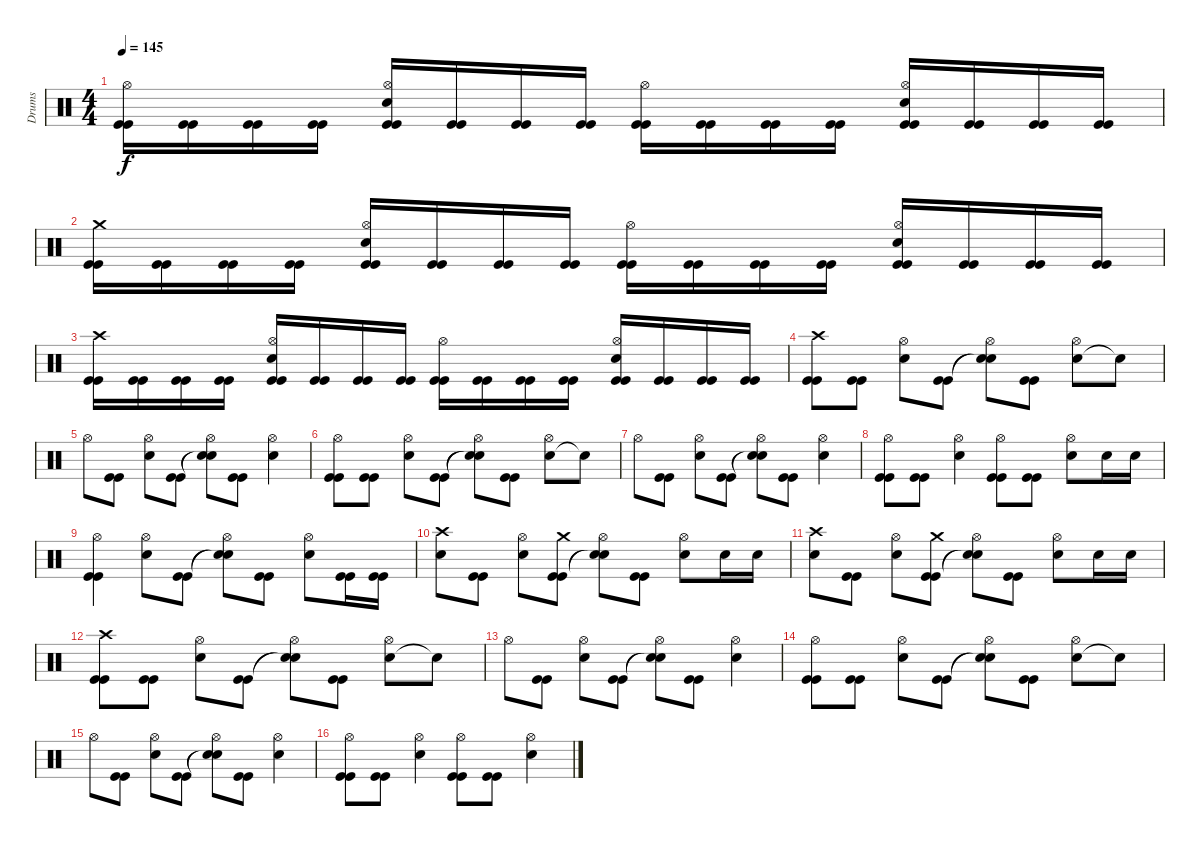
\track ("Drums" "Drums") {instrument percussion}
\staff {score}
\articulation defaults
\ts (4 4)
\tempo 145
\clef neutral
\ks c
("Kick (hit)" "Kick (hit)" "Hi-Hat (open)").16{dy f} ("Kick (hit)" "Kick (hit)").16 ("Kick (hit)" "Kick (hit)").16 ("Kick (hit)" "Kick (hit)").16 ("Kick (hit)" "Kick (hit)" "Snare (hit) 2" "Hi-Hat (open)").16 ("Kick (hit)" "Kick (hit)").16 ("Kick (hit)" "Kick (hit)").16 ("Kick (hit)" "Kick (hit)").16 ("Kick (hit)" "Kick (hit)" "Hi-Hat (open)").16 ("Kick (hit)" "Kick (hit)").16 ("Kick (hit)" "Kick (hit)").16 ("Kick (hit)" "Kick (hit)").16 ("Kick (hit)" "Kick (hit)" "Snare (hit) 2" "Hi-Hat (open)").16 ("Kick (hit)" "Kick (hit)").16 ("Kick (hit)" "Kick (hit)").16 ("Kick (hit)" "Kick (hit)").16 |
("Kick (hit)" "Kick (hit)" "Crash medium (hit)").16 ("Kick (hit)" "Kick (hit)").16 ("Kick (hit)" "Kick (hit)").16 ("Kick (hit)" "Kick (hit)").16 ("Kick (hit)" "Kick (hit)" "Snare (hit) 2" "Hi-Hat (open)").16 ("Kick (hit)" "Kick (hit)").16 ("Kick (hit)" "Kick (hit)").16 ("Kick (hit)" "Kick (hit)").16 ("Kick (hit)" "Kick (hit)" "Hi-Hat (open)").16 ("Kick (hit)" "Kick (hit)").16 ("Kick (hit)" "Kick (hit)").16 ("Kick (hit)" "Kick (hit)").16 ("Kick (hit)" "Kick (hit)" "Snare (hit) 2" "Hi-Hat (open)").16 ("Kick (hit)" "Kick (hit)").16 ("Kick (hit)" "Kick (hit)").16 ("Kick (hit)" "Kick (hit)").16 |
("Kick (hit)" "Kick (hit)" "Crash high (hit)").16 ("Kick (hit)" "Kick (hit)").16 ("Kick (hit)" "Kick (hit)").16 ("Kick (hit)" "Kick (hit)").16 ("Kick (hit)" "Kick (hit)" "Snare (hit) 2" "Hi-Hat (open)").16 ("Kick (hit)" "Kick (hit)").16 ("Kick (hit)" "Kick (hit)").16 ("Kick (hit)" "Kick (hit)").16 ("Kick (hit)" "Kick (hit)" "Hi-Hat (open)").16 ("Kick (hit)" "Kick (hit)").16 ("Kick (hit)" "Kick (hit)").16 ("Kick (hit)" "Kick (hit)").16 ("Kick (hit)" "Kick (hit)" "Snare (hit) 2" "Hi-Hat (open)").16 ("Kick (hit)" "Kick (hit)").16 ("Kick (hit)" "Kick (hit)").16 ("Kick (hit)" "Kick (hit)").16 |
("Kick (hit)" "Kick (hit)" "Crash high (hit)").8 ("Kick (hit)" "Kick (hit)").8 ("Snare (hit) 2" "Hi-Hat (open)").8 ("Kick (hit)" "Kick (hit)").8 ("Snare (hit)"{t} "Snare (hit)"{t} "Hi-Hat (open)").8 ("Kick (hit)" "Kick (hit)").8 ("Snare (hit) 2" "Hi-Hat (open)").8 "Snare (hit)"{t}.8 |
"Hi-Hat (open)".8 ("Kick (hit)" "Kick (hit)").8 ("Snare (hit) 2" "Hi-Hat (open)").8 ("Kick (hit)" "Kick (hit)").8 ("Snare (hit)"{t} "Snare (hit)"{t} "Hi-Hat (open)").8 ("Kick (hit)" "Kick (hit)").8 ("Snare (hit) 2" "Hi-Hat (open)").4 |
("Kick (hit)" "Kick (hit)" "Hi-Hat (open)").8 ("Kick (hit)" "Kick (hit)").8 ("Snare (hit) 2" "Hi-Hat (open)").8 ("Kick (hit)" "Kick (hit)").8 ("Snare (hit)"{t} "Snare (hit)"{t} "Hi-Hat (open)").8 ("Kick (hit)" "Kick (hit)").8 ("Snare (hit) 2" "Hi-Hat (open)").8 "Snare (hit)"{t}.8 |
"Hi-Hat (open)".8 ("Kick (hit)" "Kick (hit)").8 ("Snare (hit) 2" "Hi-Hat (open)").8 ("Kick (hit)" "Kick (hit)").8 ("Snare (hit)"{t} "Snare (hit)"{t} "Hi-Hat (open)").8 ("Kick (hit)" "Kick (hit)").8 ("Snare (hit) 2" "Hi-Hat (open)").4 |
("Kick (hit)" "Kick (hit)" "Hi-Hat (open)").8 ("Kick (hit)" "Kick (hit)").8 ("Snare (hit) 2" "Hi-Hat (open)").4 ("Kick (hit)" "Kick (hit)" "Hi-Hat (open)").8 ("Kick (hit)" "Kick (hit)").8 ("Snare (hit) 2" "Hi-Hat (open)").8 "Snare (hit) 2".16 "Snare (hit) 2".16 |
("Kick (hit)" "Kick (hit)" "Hi-Hat (open)").4 ("Snare (hit) 2" "Hi-Hat (open)").8 ("Kick (hit)" "Kick (hit)").8 ("Snare (hit)"{t} "Snare (hit)"{t} "Hi-Hat (open)").8 ("Kick (hit)" "Kick (hit)").8 ("Snare (hit) 2" "Hi-Hat (open)").8 ("Kick (hit)" "Kick (hit)").16 ("Kick (hit)" "Kick (hit)").16 |
("Snare (hit) 2" "Crash high (hit)").8 ("Kick (hit)" "Kick (hit)").8 ("Snare (hit) 2" "Hi-Hat (open)").8 ("Kick (hit)" "Kick (hit)" "Crash medium (hit)").8 ("Snare (hit)"{t} "Snare (hit)"{t} "Hi-Hat (open)").8 ("Kick (hit)" "Kick (hit)").8 ("Snare (hit) 2" "Hi-Hat (open)").8 "Snare (hit) 2".16 "Snare (hit) 2".16 |
("Snare (hit) 2" "Crash high (hit)").8 ("Kick (hit)" "Kick (hit)").8 ("Snare (hit) 2" "Hi-Hat (open)").8 ("Kick (hit)" "Kick (hit)" "Crash medium (hit)").8 ("Snare (hit)"{t} "Snare (hit)"{t} "Hi-Hat (open)").8 ("Kick (hit)" "Kick (hit)").8 ("Snare (hit) 2" "Hi-Hat (open)").8 "Snare (hit) 2".16 "Snare (hit) 2".16 |
("Kick (hit)" "Kick (hit)" "Crash high (hit)").8 ("Kick (hit)" "Kick (hit)").8 ("Snare (hit) 2" "Hi-Hat (open)").8 ("Kick (hit)" "Kick (hit)").8 ("Snare (hit)"{t} "Snare (hit)"{t} "Hi-Hat (open)").8 ("Kick (hit)" "Kick (hit)").8 ("Snare (hit) 2" "Hi-Hat (open)").8 "Snare (hit)"{t}.8 |
"Hi-Hat (open)".8 ("Kick (hit)" "Kick (hit)").8 ("Snare (hit) 2" "Hi-Hat (open)").8 ("Kick (hit)" "Kick (hit)").8 ("Snare (hit)"{t} "Snare (hit)"{t} "Hi-Hat (open)").8 ("Kick (hit)" "Kick (hit)").8 ("Snare (hit) 2" "Hi-Hat (open)").4 |
("Kick (hit)" "Kick (hit)" "Hi-Hat (open)").8 ("Kick (hit)" "Kick (hit)").8 ("Snare (hit) 2" "Hi-Hat (open)").8 ("Kick (hit)" "Kick (hit)").8 ("Snare (hit)"{t} "Snare (hit)"{t} "Hi-Hat (open)").8 ("Kick (hit)" "Kick (hit)").8 ("Snare (hit) 2" "Hi-Hat (open)").8 "Snare (hit)"{t}.8 |
"Hi-Hat (open)".8 ("Kick (hit)" "Kick (hit)").8 ("Snare (hit) 2" "Hi-Hat (open)").8 ("Kick (hit)" "Kick (hit)").8 ("Snare (hit)"{t} "Snare (hit)"{t} "Hi-Hat (open)").8 ("Kick (hit)" "Kick (hit)").8 ("Snare (hit) 2" "Hi-Hat (open)").4 |
("Kick (hit)" "Kick (hit)" "Hi-Hat (open)").8 ("Kick (hit)" "Kick (hit)").8 ("Snare (hit) 2" "Hi-Hat (open)").4 ("Kick (hit)" "Kick (hit)" "Hi-Hat (open)").8 ("Kick (hit)" "Kick (hit)").8 ("Snare (hit) 2" "Hi-Hat (open)").4
